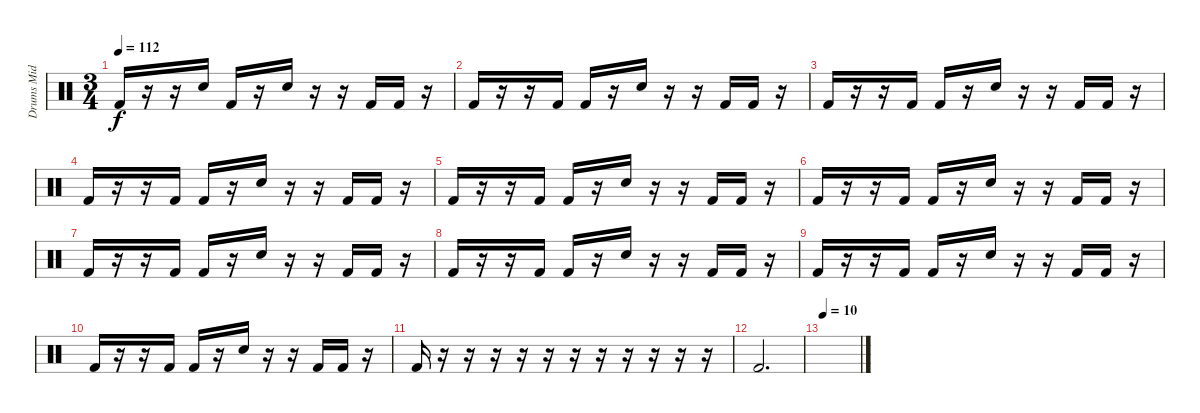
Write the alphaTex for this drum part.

\track ("Drums Mid" "Drums Mid") {instrument percussion}
\staff {score}
\articulation defaults
\ts (3 4)
\tempo 112
\clef neutral
\ks c "Kick (hit) 2".16{dy f}
r.16 r.16 "Snare (hit) 2".16 "Kick (hit) 2".16 r.16 "Snare (hit) 2".16 r.16 r.16 "Kick (hit) 2".16 "Kick (hit) 2".16 r.16 |
"Kick (hit) 2".16 r.16 r.16 "Kick (hit) 2".16 "Kick (hit) 2".16 r.16 "Snare (hit) 2".16 r.16 r.16 "Kick (hit) 2".16 "Kick (hit) 2".16 r.16 |
"Kick (hit) 2".16 r.16 r.16 "Kick (hit) 2".16 "Kick (hit) 2".16 r.16 "Snare (hit) 2".16 r.16 r.16 "Kick (hit) 2".16 "Kick (hit) 2".16 r.16 |
"Kick (hit) 2".16 r.16 r.16 "Kick (hit) 2".16 "Kick (hit) 2".16 r.16 "Snare (hit) 2".16 r.16 r.16 "Kick (hit) 2".16 "Kick (hit) 2".16 r.16 |
"Kick (hit) 2".16 r.16 r.16 "Kick (hit) 2".16 "Kick (hit) 2".16 r.16 "Snare (hit) 2".16 r.16 r.16 "Kick (hit) 2".16 "Kick (hit) 2".16 r.16 |
"Kick (hit) 2".16 r.16 r.16 "Kick (hit) 2".16 "Kick (hit) 2".16 r.16 "Snare (hit) 2".16 r.16 r.16 "Kick (hit) 2".16 "Kick (hit) 2".16 r.16 |
"Kick (hit) 2".16 r.16 r.16 "Kick (hit) 2".16 "Kick (hit) 2".16 r.16 "Snare (hit) 2".16 r.16 r.16 "Kick (hit) 2".16 "Kick (hit) 2".16 r.16 |
"Kick (hit) 2".16 r.16 r.16 "Kick (hit) 2".16 "Kick (hit) 2".16 r.16 "Snare (hit) 2".16 r.16 r.16 "Kick (hit) 2".16 "Kick (hit) 2".16 r.16 |
"Kick (hit) 2".16 r.16 r.16 "Kick (hit) 2".16 "Kick (hit) 2".16 r.16 "Snare (hit) 2".16 r.16 r.16 "Kick (hit) 2".16 "Kick (hit) 2".16 r.16 |
"Kick (hit) 2".16 r.16 r.16 "Kick (hit) 2".16 "Kick (hit) 2".16 r.16 "Snare (hit) 2".16 r.16 r.16 "Kick (hit) 2".16 "Kick (hit) 2".16 r.16 |
"Kick (hit) 2".16 r.16 r.16 r.16 r.16 r.16 r.16 r.16 r.16 r.16 r.16 r.16 |
"Kick (hit) 2".2{d} |
\tempo 10
